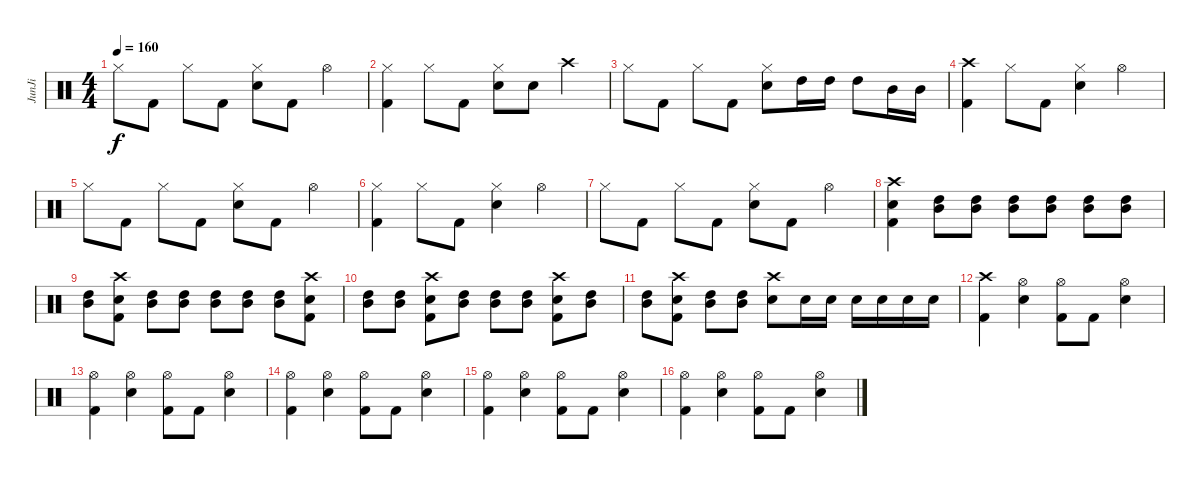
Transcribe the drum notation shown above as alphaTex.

\track ("JunJi" "JunJi") {instrument percussion}
\staff {score}
\articulation defaults
\ts (4 4)
\tempo 160
\clef neutral
\ks c "Hi-Hat (closed)".8{dy f} "Kick (hit) 2".8 "Hi-Hat (closed)".8 "Kick (hit) 2".8
("Hi-Hat (closed)" "Snare (hit) 2").8 "Kick (hit) 2".8 "Hi-Hat (open)".4 |
("Hi-Hat (closed)" "Kick (hit) 2").4 "Hi-Hat (closed)".8 "Kick (hit) 2".8 ("Hi-Hat (closed)" "Snare (hit) 2").8 "Snare (hit) 2".8 "Crash high (hit)".4 |
"Hi-Hat (closed)".8 "Kick (hit) 2".8 "Hi-Hat (closed)".8 "Kick (hit) 2".8 ("Hi-Hat (closed)" "Snare (hit) 2").8 "High Tom (hit)".16 "High Tom (hit)".16 "High Tom (hit)".8 "Mid Tom (hit)".16 "Mid Tom (hit)".16 |
("Crash high (hit)" "Kick (hit) 2").4 "Hi-Hat (closed)".8 "Kick (hit) 2".8 ("Hi-Hat (closed)" "Snare (hit) 2").4 "Hi-Hat (open)".4 |
"Hi-Hat (closed)".8 "Kick (hit) 2".8 "Hi-Hat (closed)".8 "Kick (hit) 2".8 ("Hi-Hat (closed)" "Snare (hit) 2").8 "Kick (hit) 2".8 "Hi-Hat (open)".4 |
("Hi-Hat (closed)" "Kick (hit) 2").4 "Hi-Hat (closed)".8 "Kick (hit) 2".8 ("Hi-Hat (closed)" "Snare (hit) 2").4 "Hi-Hat (open)".4 |
"Hi-Hat (closed)".8 "Kick (hit) 2".8 "Hi-Hat (closed)".8 "Kick (hit) 2".8 ("Hi-Hat (closed)" "Snare (hit) 2").8 "Kick (hit) 2".8 "Hi-Hat (open)".4 |
("Crash high (hit)" "Snare (hit) 2" "Kick (hit) 2").4 ("High Tom (hit)" "Mid Tom (hit)").8 ("High Tom (hit)" "Mid Tom (hit)").8 ("High Tom (hit)" "Mid Tom (hit)").8 ("High Tom (hit)" "Mid Tom (hit)").8 ("High Tom (hit)" "Mid Tom (hit)").8 ("High Tom (hit)" "Mid Tom (hit)").8 |
("High Tom (hit)" "Mid Tom (hit)").8 ("Crash high (hit)" "Snare (hit) 2" "Kick (hit) 2").8 ("High Tom (hit)" "Mid Tom (hit)").8 ("High Tom (hit)" "Mid Tom (hit)").8 ("High Tom (hit)" "Mid Tom (hit)").8 ("High Tom (hit)" "Mid Tom (hit)").8 ("High Tom (hit)" "Mid Tom (hit)").8 ("Crash high (hit)" "Snare (hit) 2" "Kick (hit) 2").8 |
("High Tom (hit)" "Mid Tom (hit)").8 ("High Tom (hit)" "Mid Tom (hit)").8 ("Crash high (hit)" "Snare (hit) 2" "Kick (hit) 2").8 ("High Tom (hit)" "Mid Tom (hit)").8 ("High Tom (hit)" "Mid Tom (hit)").8 ("High Tom (hit)" "Mid Tom (hit)").8 ("Crash high (hit)" "Kick (hit) 2" "Snare (hit) 2").8 ("High Tom (hit)" "Mid Tom (hit)").8 |
("High Tom (hit)" "Mid Tom (hit)").8 ("Crash high (hit)" "Snare (hit) 2" "Kick (hit) 2").8 ("High Tom (hit)" "Mid Tom (hit)").8 ("High Tom (hit)" "Mid Tom (hit)").8 ("Crash high (hit)" "Snare (hit) 2").8 "Snare (hit) 2".16 "Snare (hit) 2".16 "Snare (hit) 2".16 "Snare (hit) 2".16 "Snare (hit) 2".16 "Snare (hit) 2".16 |
("Crash high (hit)" "Kick (hit) 2").4 ("Hi-Hat (open)" "Snare (hit) 2").4 ("Hi-Hat (open)" "Kick (hit) 2").8 "Kick (hit) 2".8 ("Hi-Hat (open)" "Snare (hit) 2").4 |
("Hi-Hat (open)" "Kick (hit) 2").4 ("Hi-Hat (open)" "Snare (hit) 2").4 ("Hi-Hat (open)" "Kick (hit) 2").8 "Kick (hit) 2".8 ("Hi-Hat (open)" "Snare (hit) 2").4 |
("Hi-Hat (open)" "Kick (hit) 2").4 ("Hi-Hat (open)" "Snare (hit) 2").4 ("Hi-Hat (open)" "Kick (hit) 2").8 "Kick (hit) 2".8 ("Hi-Hat (open)" "Snare (hit) 2").4 |
("Hi-Hat (open)" "Kick (hit) 2").4 ("Hi-Hat (open)" "Snare (hit) 2").4 ("Hi-Hat (open)" "Kick (hit) 2").8 "Kick (hit) 2".8 ("Hi-Hat (open)" "Snare (hit) 2").4 |
("Hi-Hat (open)" "Kick (hit) 2").4 ("Hi-Hat (open)" "Snare (hit) 2").4 ("Hi-Hat (open)" "Kick (hit) 2").8 "Kick (hit) 2".8 ("Hi-Hat (open)" "Snare (hit) 2").4
